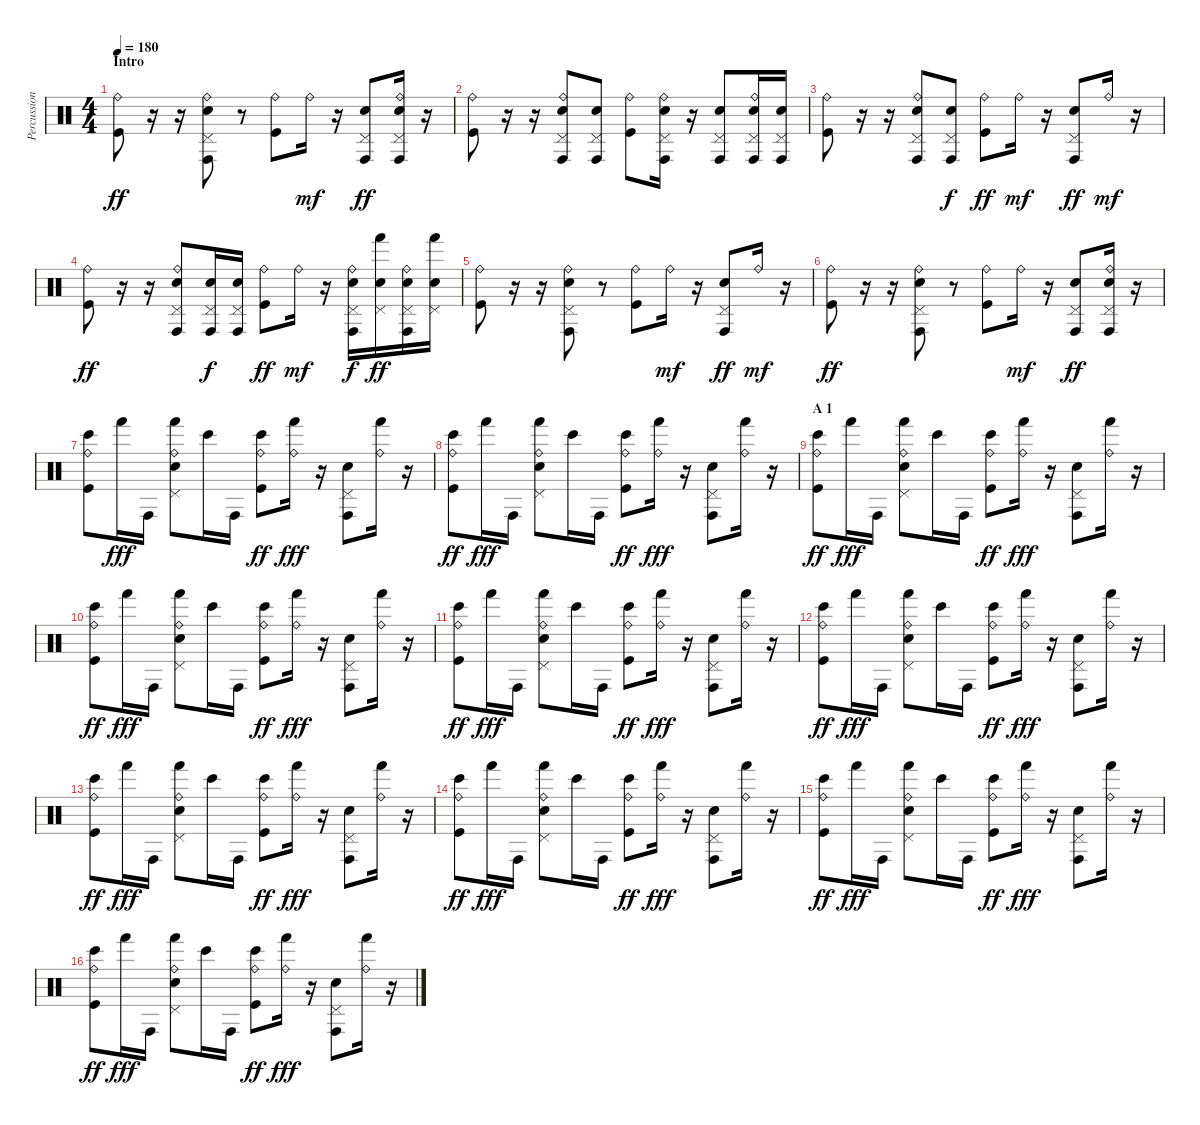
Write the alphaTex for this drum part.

\track ("Percussion" "Percussion") {instrument percussion}
\staff {score}
\articulation defaults
\ts (4 4)
\section ("" "Intro")
\tempo 180
\clef neutral
\ks c
("Ride (bell)" "Kick (hit)").8{dy ff} r.16 r.16 ("Ride (bell)" "Pedal Hi-Hat (hit)" "Conga high (hit)" "Electric Snare (hit)").8 r.8 ("Ride (bell)" "Kick (hit)").8 "Ride (bell)".16{dy mf} r.16 ("Pedal Hi-Hat (hit)" "Conga high (hit)" "Electric Snare (hit)").8{dy ff} ("Ride (bell)" "Pedal Hi-Hat (hit)" "Conga high (hit)" "Electric Snare (hit)").16 r.16 |
("Ride (bell)" "Kick (hit)").8 r.16 r.16 ("Ride (bell)" "Pedal Hi-Hat (hit)" "Conga high (hit)" "Electric Snare (hit)").8 ("Pedal Hi-Hat (hit)" "Conga high (hit)" "Electric Snare (hit)").8 ("Ride (bell)" "Kick (hit)").8 ("Ride (bell)" "Pedal Hi-Hat (hit)" "Conga high (hit)" "Electric Snare (hit)").16 r.16 ("Pedal Hi-Hat (hit)" "Conga high (hit)" "Electric Snare (hit)").8 ("Ride (bell)" "Pedal Hi-Hat (hit)" "Conga high (hit)" "Electric Snare (hit)").16 ("Pedal Hi-Hat (hit)" "Conga high (hit)" "Electric Snare (hit)").16 |
("Ride (bell)" "Kick (hit)").8 r.16 r.16 ("Ride (bell)" "Pedal Hi-Hat (hit)" "Conga high (hit)" "Electric Snare (hit)").8 ("Pedal Hi-Hat (hit)" "Conga high (hit)" "Electric Snare (hit)").8{dy f} ("Ride (bell)" "Kick (hit)").8{dy ff} "Ride (bell)".16{dy mf} r.16 ("Pedal Hi-Hat (hit)" "Conga high (hit)" "Electric Snare (hit)").8{dy ff} "Ride (bell)".16{dy mf} r.16 |
("Ride (bell)" "Kick (hit)").8{dy ff} r.16 r.16 ("Ride (bell)" "Pedal Hi-Hat (hit)" "Conga high (hit)" "Electric Snare (hit)").8 ("Pedal Hi-Hat (hit)" "Conga high (hit)" "Electric Snare (hit)").16{dy f} ("Pedal Hi-Hat (hit)" "Conga high (hit)" "Electric Snare (hit)").16 ("Ride (bell)" "Kick (hit)").8{dy ff} "Ride (bell)".16{dy mf} r.16 ("Ride (bell)" "Pedal Hi-Hat (hit)" "Conga high (hit)" "Electric Snare (hit)").16{dy f} ("Pedal Hi-Hat (hit)" "Hand (hit)" "Electric Snare (hit)").16{dy ff} ("Ride (bell)" "Pedal Hi-Hat (hit)" "Conga high (hit)" "Electric Snare (hit)").16 ("Pedal Hi-Hat (hit)" "Hand (hit)" "Electric Snare (hit)").16 |
("Ride (bell)" "Kick (hit)").8 r.16 r.16 ("Ride (bell)" "Pedal Hi-Hat (hit)" "Conga high (hit)" "Electric Snare (hit)").8 r.8 ("Ride (bell)" "Kick (hit)").8 "Ride (bell)".16{dy mf} r.16 ("Pedal Hi-Hat (hit)" "Conga high (hit)" "Electric Snare (hit)").8{dy ff} "Ride (bell)".16{dy mf} r.16 |
("Ride (bell)" "Kick (hit)").8{dy ff} r.16 r.16 ("Ride (bell)" "Pedal Hi-Hat (hit)" "Conga high (hit)" "Electric Snare (hit)").8 r.8 ("Ride (bell)" "Kick (hit)").8 "Ride (bell)".16{dy mf} r.16 ("Pedal Hi-Hat (hit)" "Conga high (hit)" "Electric Snare (hit)").8{dy ff} ("Ride (bell)" "Pedal Hi-Hat (hit)" "Conga high (hit)" "Electric Snare (hit)").16 r.16 |
("Ride (bell)" "Bongo High (hit)" "Kick (hit)").8 "Hand (hit)".16{dy fff} "Conga high (hit)".16 ("Ride (bell)" "Pedal Hi-Hat (hit)" "Hand (hit)" "Electric Snare (hit)").8 "Bongo High (hit)".16 "Conga high (hit)".16 ("Ride (bell)" "Bongo High (hit)" "Kick (hit)").8{dy ff} ("Ride (bell)" "Hand (hit)").16{dy fff} r.16 ("Pedal Hi-Hat (hit)" "Conga high (hit)" "Electric Snare (hit)").8 ("Ride (bell)" "Hand (hit)").16 r.16 |
("Ride (bell)" "Bongo High (hit)" "Kick (hit)").8{dy ff} "Hand (hit)".16{dy fff} "Conga high (hit)".16 ("Ride (bell)" "Pedal Hi-Hat (hit)" "Hand (hit)" "Electric Snare (hit)").8 "Bongo High (hit)".16 "Conga high (hit)".16 ("Ride (bell)" "Bongo High (hit)" "Kick (hit)").8{dy ff} ("Ride (bell)" "Hand (hit)").16{dy fff} r.16 ("Pedal Hi-Hat (hit)" "Conga high (hit)" "Electric Snare (hit)").8 ("Ride (bell)" "Hand (hit)").16 r.16 |
\section ("" "A 1")
("Ride (bell)" "Bongo High (hit)" "Kick (hit)").8{dy ff} "Hand (hit)".16{dy fff} "Conga high (hit)".16 ("Ride (bell)" "Pedal Hi-Hat (hit)" "Hand (hit)" "Electric Snare (hit)").8 "Bongo High (hit)".16 "Conga high (hit)".16 ("Ride (bell)" "Bongo High (hit)" "Kick (hit)").8{dy ff} ("Ride (bell)" "Hand (hit)").16{dy fff} r.16 ("Pedal Hi-Hat (hit)" "Conga high (hit)" "Electric Snare (hit)").8 ("Ride (bell)" "Hand (hit)").16 r.16 |
("Ride (bell)" "Bongo High (hit)" "Kick (hit)").8{dy ff} "Hand (hit)".16{dy fff} "Conga high (hit)".16 ("Ride (bell)" "Pedal Hi-Hat (hit)" "Hand (hit)" "Electric Snare (hit)").8 "Bongo High (hit)".16 "Conga high (hit)".16 ("Ride (bell)" "Bongo High (hit)" "Kick (hit)").8{dy ff} ("Ride (bell)" "Hand (hit)").16{dy fff} r.16 ("Pedal Hi-Hat (hit)" "Conga high (hit)" "Electric Snare (hit)").8 ("Ride (bell)" "Hand (hit)").16 r.16 |
("Ride (bell)" "Bongo High (hit)" "Kick (hit)").8{dy ff} "Hand (hit)".16{dy fff} "Conga high (hit)".16 ("Ride (bell)" "Pedal Hi-Hat (hit)" "Hand (hit)" "Electric Snare (hit)").8 "Bongo High (hit)".16 "Conga high (hit)".16 ("Ride (bell)" "Bongo High (hit)" "Kick (hit)").8{dy ff} ("Ride (bell)" "Hand (hit)").16{dy fff} r.16 ("Pedal Hi-Hat (hit)" "Conga high (hit)" "Electric Snare (hit)").8 ("Ride (bell)" "Hand (hit)").16 r.16 |
("Ride (bell)" "Bongo High (hit)" "Kick (hit)").8{dy ff} "Hand (hit)".16{dy fff} "Conga high (hit)".16 ("Ride (bell)" "Pedal Hi-Hat (hit)" "Hand (hit)" "Electric Snare (hit)").8 "Bongo High (hit)".16 "Conga high (hit)".16 ("Ride (bell)" "Bongo High (hit)" "Kick (hit)").8{dy ff} ("Ride (bell)" "Hand (hit)").16{dy fff} r.16 ("Pedal Hi-Hat (hit)" "Conga high (hit)" "Electric Snare (hit)").8 ("Ride (bell)" "Hand (hit)").16 r.16 |
("Ride (bell)" "Bongo High (hit)" "Kick (hit)").8{dy ff} "Hand (hit)".16{dy fff} "Conga high (hit)".16 ("Ride (bell)" "Pedal Hi-Hat (hit)" "Hand (hit)" "Electric Snare (hit)").8 "Bongo High (hit)".16 "Conga high (hit)".16 ("Ride (bell)" "Bongo High (hit)" "Kick (hit)").8{dy ff} ("Ride (bell)" "Hand (hit)").16{dy fff} r.16 ("Pedal Hi-Hat (hit)" "Conga high (hit)" "Electric Snare (hit)").8 ("Ride (bell)" "Hand (hit)").16 r.16 |
("Ride (bell)" "Bongo High (hit)" "Kick (hit)").8{dy ff} "Hand (hit)".16{dy fff} "Conga high (hit)".16 ("Ride (bell)" "Pedal Hi-Hat (hit)" "Hand (hit)" "Electric Snare (hit)").8 "Bongo High (hit)".16 "Conga high (hit)".16 ("Ride (bell)" "Bongo High (hit)" "Kick (hit)").8{dy ff} ("Ride (bell)" "Hand (hit)").16{dy fff} r.16 ("Pedal Hi-Hat (hit)" "Conga high (hit)" "Electric Snare (hit)").8 ("Ride (bell)" "Hand (hit)").16 r.16 |
("Ride (bell)" "Bongo High (hit)" "Kick (hit)").8{dy ff} "Hand (hit)".16{dy fff} "Conga high (hit)".16 ("Ride (bell)" "Pedal Hi-Hat (hit)" "Hand (hit)" "Electric Snare (hit)").8 "Bongo High (hit)".16 "Conga high (hit)".16 ("Ride (bell)" "Bongo High (hit)" "Kick (hit)").8{dy ff} ("Ride (bell)" "Hand (hit)").16{dy fff} r.16 ("Pedal Hi-Hat (hit)" "Conga high (hit)" "Electric Snare (hit)").8 ("Ride (bell)" "Hand (hit)").16 r.16 |
("Ride (bell)" "Bongo High (hit)" "Kick (hit)").8{dy ff} "Hand (hit)".16{dy fff} "Conga high (hit)".16 ("Ride (bell)" "Pedal Hi-Hat (hit)" "Hand (hit)" "Electric Snare (hit)").8 "Bongo High (hit)".16 "Conga high (hit)".16 ("Ride (bell)" "Bongo High (hit)" "Kick (hit)").8{dy ff} ("Ride (bell)" "Hand (hit)").16{dy fff} r.16 ("Pedal Hi-Hat (hit)" "Conga high (hit)" "Electric Snare (hit)").8 ("Ride (bell)" "Hand (hit)").16 r.16
